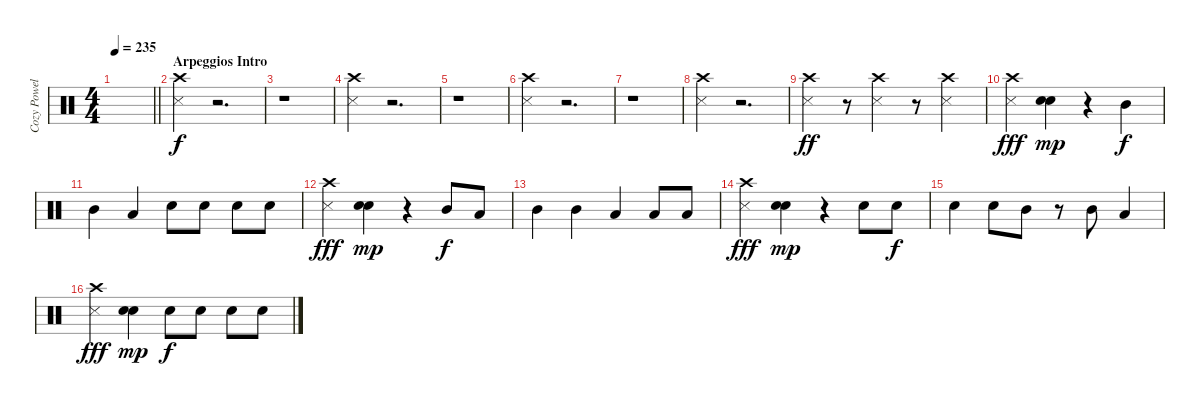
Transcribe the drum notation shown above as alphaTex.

\track ("Cozy Powell" "Cozy Powel") {instrument percussion}
\staff {score}
\articulation defaults
\ts (4 4)
\tempo 235
\clef neutral
\barLineRight lightlight
\ks c
|
\section ("" "Arpeggios Intro")
("Metronome (hit)" "Crash high (hit)").4 r.2{d} |
r.1 |
("Metronome (hit)" "Crash high (hit)").4 r.2{d} |
r.1 |
("Metronome (hit)" "Crash high (hit)").4 r.2{d} |
r.1 |
("Metronome (hit)" "Crash high (hit)").4 r.2{d} |
("Metronome (hit)" "Crash high (hit)").4{dy ff} r.8 ("Metronome (hit)" "Crash high (hit)").4 r.8 ("Metronome (hit)" "Crash high (hit)").4 |
("Metronome (hit)" "Crash high (hit)").4{dy fff} ("Electric Snare (hit)" "Electric Snare (hit)").4{dy mp} r.4 "Mid Tom (hit)".4{dy f} |
"Mid Tom (hit)".4 "Low Tom (hit)".4 "Electric Snare (hit)".8 "Electric Snare (hit)".8 "Electric Snare (hit)".8 "Electric Snare (hit)".8 |
("Crash high (hit)" "Metronome (hit)").4{dy fff} ("Electric Snare (hit)" "Electric Snare (hit)").4{dy mp} r.4 "Mid Tom (hit)".8{dy f} "Low Tom (hit)".8 |
"Mid Tom (hit)".4 "Mid Tom (hit)".4 "Low Tom (hit)".4 "Low Tom (hit)".8 "Low Tom (hit)".8 |
("Metronome (hit)" "Crash high (hit)").4{dy fff} ("Electric Snare (hit)" "Electric Snare (hit)").4{dy mp} r.4 "Electric Snare (hit)".8 "Electric Snare (hit)".8{dy f} |
"Electric Snare (hit)".4 "Electric Snare (hit)".8 "Mid Tom (hit)".8 r.8 "Mid Tom (hit)".8 "Low Tom (hit)".4 |
("Metronome (hit)" "Crash high (hit)").4{dy fff} ("Electric Snare (hit)" "Electric Snare (hit)").4{dy mp} "Electric Snare (hit)".8{dy f} "Electric Snare (hit)".8 "Electric Snare (hit)".8 "Electric Snare (hit)".8
